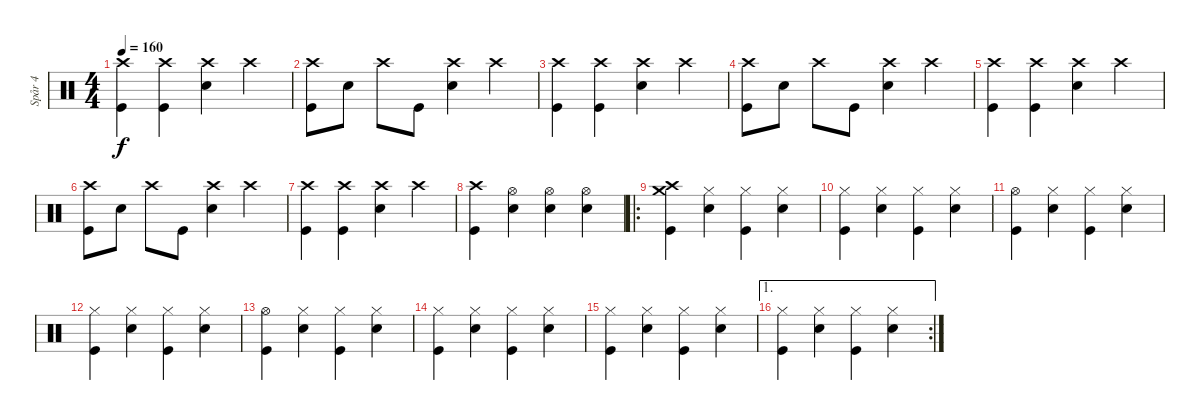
\track ("Spår 4" "Spår 4") {instrument percussion}
\staff {score}
\articulation defaults
\ts (4 4)
\tempo 160
\clef neutral
\ks c
("Crash high (hit)" "Kick (hit)").4{dy f} ("Crash high (hit)" "Kick (hit)").4 ("Crash high (hit)" "Snare (hit) 2").4 "Crash high (hit)".4 |
("Crash high (hit)" "Kick (hit)").8 "Snare (hit) 2".8 "Crash high (hit)".8 "Kick (hit)".8 ("Crash high (hit)" "Snare (hit) 2").4 "Crash high (hit)".4 |
("Crash high (hit)" "Kick (hit)").4 ("Crash high (hit)" "Kick (hit)").4 ("Crash high (hit)" "Snare (hit) 2").4 "Crash high (hit)".4 |
("Crash high (hit)" "Kick (hit)").8 "Snare (hit) 2".8 "Crash high (hit)".8 "Kick (hit)".8 ("Crash high (hit)" "Snare (hit) 2").4 "Crash high (hit)".4 |
("Crash high (hit)" "Kick (hit)").4 ("Crash high (hit)" "Kick (hit)").4 ("Crash high (hit)" "Snare (hit) 2").4 "Crash high (hit)".4 |
("Crash high (hit)" "Kick (hit)").8 "Snare (hit) 2".8 "Crash high (hit)".8 "Kick (hit)".8 ("Crash high (hit)" "Snare (hit) 2").4 "Crash high (hit)".4 |
("Crash high (hit)" "Kick (hit)").4 ("Crash high (hit)" "Kick (hit)").4 ("Crash high (hit)" "Snare (hit) 2").4 "Crash high (hit)".4 |
("Crash high (hit)" "Kick (hit)").4 ("Hi-Hat (open)" "Snare (hit) 2").4 ("Hi-Hat (open)" "Snare (hit) 2").4 ("Hi-Hat (open)" "Snare (hit) 2").4 |
\ro
("Crash medium (hit)" "Crash high (hit)" "Kick (hit)").4 ("Hi-Hat (closed)" "Snare (hit) 2").4 ("Hi-Hat (closed)" "Kick (hit)").4 ("Hi-Hat (closed)" "Snare (hit) 2").4 |
("Hi-Hat (closed)" "Kick (hit)").4 ("Hi-Hat (closed)" "Snare (hit) 2").4 ("Hi-Hat (closed)" "Kick (hit)").4 ("Hi-Hat (closed)" "Snare (hit) 2").4 |
("Hi-Hat (open)" "Kick (hit)").4 ("Hi-Hat (closed)" "Snare (hit) 2").4 ("Hi-Hat (closed)" "Kick (hit)").4 ("Hi-Hat (closed)" "Snare (hit) 2").4 |
("Hi-Hat (closed)" "Kick (hit)").4 ("Hi-Hat (closed)" "Snare (hit) 2").4 ("Hi-Hat (closed)" "Kick (hit)").4 ("Hi-Hat (closed)" "Snare (hit) 2").4 |
("Hi-Hat (open)" "Kick (hit)").4 ("Hi-Hat (closed)" "Snare (hit) 2").4 ("Hi-Hat (closed)" "Kick (hit)").4 ("Hi-Hat (closed)" "Snare (hit) 2").4 |
("Hi-Hat (closed)" "Kick (hit)").4 ("Hi-Hat (closed)" "Snare (hit) 2").4 ("Hi-Hat (closed)" "Kick (hit)").4 ("Hi-Hat (closed)" "Snare (hit) 2").4 |
("Hi-Hat (closed)" "Kick (hit)").4 ("Hi-Hat (closed)" "Snare (hit) 2").4 ("Hi-Hat (closed)" "Kick (hit)").4 ("Hi-Hat (closed)" "Snare (hit) 2").4 |
\ae 1
\rc 2
("Hi-Hat (closed)" "Kick (hit)").4 ("Hi-Hat (closed)" "Snare (hit) 2").4 ("Hi-Hat (closed)" "Kick (hit)").4 ("Hi-Hat (closed)" "Snare (hit) 2").4
